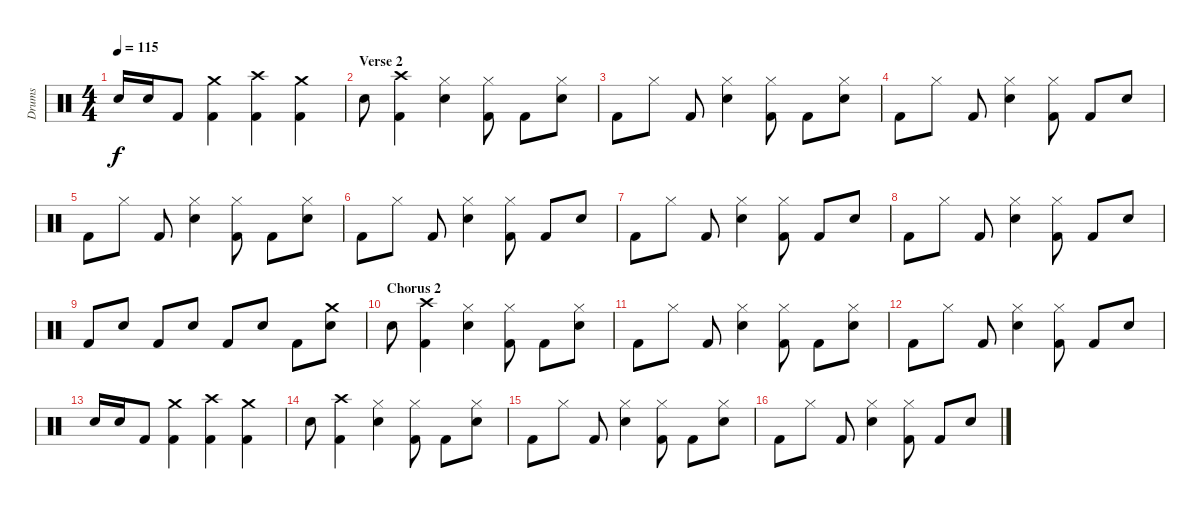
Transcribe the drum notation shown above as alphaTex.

\track ("Drums" "Drums") {instrument percussion}
\staff {score}
\articulation defaults
\ts (4 4)
\tempo 115
\clef neutral
\ks c "Snare (hit) 2".16{dy f} "Snare (hit) 2".16 "Kick (hit) 2".8
("Crash medium (hit)" "Kick (hit) 2").4 ("Crash high (hit)" "Kick (hit) 2").4 ("Crash medium (hit)" "Kick (hit) 2").4 |
\section ("" "Verse 2")
"Snare (hit) 2".8 ("Crash high (hit)" "Kick (hit) 2").4 ("Hi-Hat (closed)" "Snare (hit) 2").4 ("Hi-Hat (closed)" "Kick (hit) 2").8 "Kick (hit) 2".8 ("Hi-Hat (closed)" "Snare (hit) 2").8 |
"Kick (hit) 2".8 "Hi-Hat (closed)".8 "Kick (hit) 2".8 ("Hi-Hat (closed)" "Snare (hit) 2").4 ("Hi-Hat (closed)" "Kick (hit) 2").8 "Kick (hit) 2".8 ("Hi-Hat (closed)" "Snare (hit) 2").8 |
"Kick (hit) 2".8 "Hi-Hat (closed)".8 "Kick (hit) 2".8 ("Hi-Hat (closed)" "Snare (hit) 2").4 ("Hi-Hat (closed)" "Kick (hit) 2").8 "Kick (hit) 2".8 "Snare (hit) 2".8 |
"Kick (hit) 2".8 "Hi-Hat (closed)".8 "Kick (hit) 2".8 ("Hi-Hat (closed)" "Snare (hit) 2").4 ("Hi-Hat (closed)" "Kick (hit) 2").8 "Kick (hit) 2".8 ("Hi-Hat (closed)" "Snare (hit) 2").8 |
"Kick (hit) 2".8 "Hi-Hat (closed)".8 "Kick (hit) 2".8 ("Hi-Hat (closed)" "Snare (hit) 2").4 ("Hi-Hat (closed)" "Kick (hit) 2").8 "Kick (hit) 2".8 "Snare (hit) 2".8 |
"Kick (hit) 2".8 "Hi-Hat (closed)".8 "Kick (hit) 2".8 ("Hi-Hat (closed)" "Snare (hit) 2").4 ("Hi-Hat (closed)" "Kick (hit) 2").8 "Kick (hit) 2".8 "Snare (hit) 2".8 |
"Kick (hit) 2".8 "Hi-Hat (closed)".8 "Kick (hit) 2".8 ("Hi-Hat (closed)" "Snare (hit) 2").4 ("Hi-Hat (closed)" "Kick (hit) 2").8 "Kick (hit) 2".8 "Snare (hit) 2".8 |
"Kick (hit) 2".8 "Snare (hit) 2".8 "Kick (hit) 2".8 "Snare (hit) 2".8 "Kick (hit) 2".8 "Snare (hit) 2".8 "Kick (hit) 2".8 ("Crash medium (hit)" "Snare (hit) 2").8 |
\section ("" "Chorus 2")
"Snare (hit) 2".8 ("Crash high (hit)" "Kick (hit) 2").4 ("Hi-Hat (closed)" "Snare (hit) 2").4 ("Hi-Hat (closed)" "Kick (hit) 2").8 "Kick (hit) 2".8 ("Hi-Hat (closed)" "Snare (hit) 2").8 |
"Kick (hit) 2".8 "Hi-Hat (closed)".8 "Kick (hit) 2".8 ("Hi-Hat (closed)" "Snare (hit) 2").4 ("Hi-Hat (closed)" "Kick (hit) 2").8 "Kick (hit) 2".8 ("Hi-Hat (closed)" "Snare (hit) 2").8 |
"Kick (hit) 2".8 "Hi-Hat (closed)".8 "Kick (hit) 2".8 ("Hi-Hat (closed)" "Snare (hit) 2").4 ("Hi-Hat (closed)" "Kick (hit) 2").8 "Kick (hit) 2".8 "Snare (hit) 2".8 |
"Snare (hit) 2".16 "Snare (hit) 2".16 "Kick (hit) 2".8 ("Crash medium (hit)" "Kick (hit) 2").4 ("Crash high (hit)" "Kick (hit) 2").4 ("Crash medium (hit)" "Kick (hit) 2").4 |
"Snare (hit) 2".8 ("Crash high (hit)" "Kick (hit) 2").4 ("Hi-Hat (closed)" "Snare (hit) 2").4 ("Hi-Hat (closed)" "Kick (hit) 2").8 "Kick (hit) 2".8 ("Hi-Hat (closed)" "Snare (hit) 2").8 |
"Kick (hit) 2".8 "Hi-Hat (closed)".8 "Kick (hit) 2".8 ("Hi-Hat (closed)" "Snare (hit) 2").4 ("Hi-Hat (closed)" "Kick (hit) 2").8 "Kick (hit) 2".8 ("Hi-Hat (closed)" "Snare (hit) 2").8 |
"Kick (hit) 2".8 "Hi-Hat (closed)".8 "Kick (hit) 2".8 ("Hi-Hat (closed)" "Snare (hit) 2").4 ("Hi-Hat (closed)" "Kick (hit) 2").8 "Kick (hit) 2".8 "Snare (hit) 2".8
